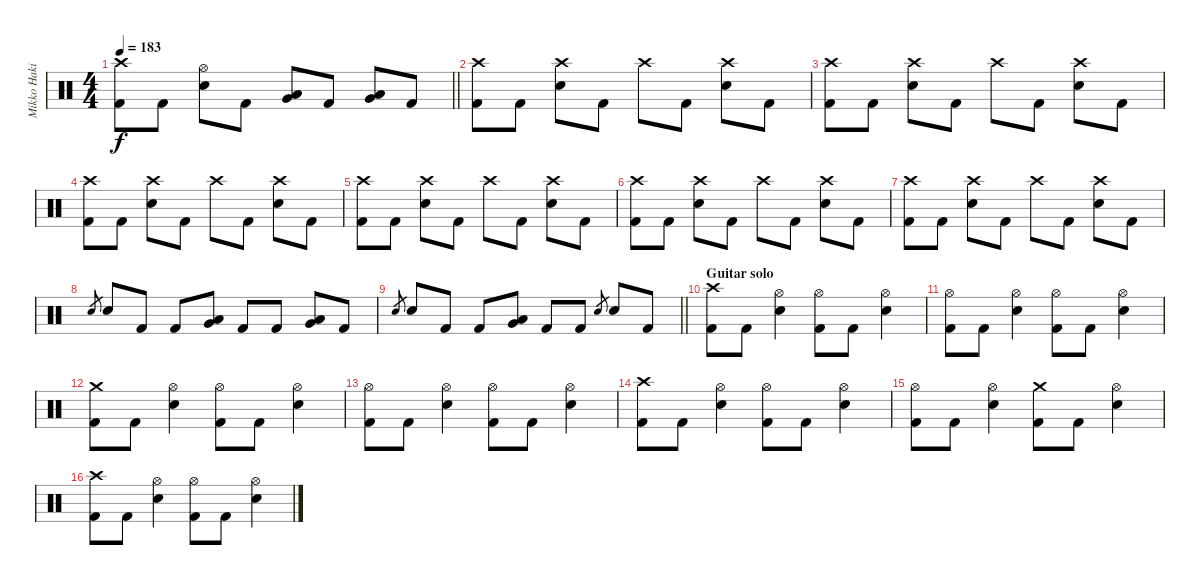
\track ("Mikko Hakila - Drums" "Mikko Haki") {instrument percussion}
\staff {score}
\articulation defaults
\ts (4 4)
\tempo 183
\clef neutral
\barLineRight lightlight
\ks c
("Crash high (hit)" "Kick (hit) 2").8{dy f} "Kick (hit) 2".8 ("Hi-Hat (open)" "Electric Snare (hit)").8 "Kick (hit) 2".8 ("Low Tom (hit)" "Very Low Tom (hit)").8 "Kick (hit) 2".8 ("Low Tom (hit)" "Very Low Tom (hit)").8 "Kick (hit) 2".8 |
("Crash high (hit)" "Kick (hit) 2").8 "Kick (hit) 2".8 ("Crash high (hit)" "Electric Snare (hit)").8 "Kick (hit) 2".8 "Crash high (hit)".8 "Kick (hit) 2".8 ("Crash high (hit)" "Electric Snare (hit)").8 "Kick (hit) 2".8 |
("Crash high (hit)" "Kick (hit) 2").8 "Kick (hit) 2".8 ("Crash high (hit)" "Electric Snare (hit)").8 "Kick (hit) 2".8 "Crash high (hit)".8 "Kick (hit) 2".8 ("Crash high (hit)" "Electric Snare (hit)").8 "Kick (hit) 2".8 |
("Crash high (hit)" "Kick (hit) 2").8 "Kick (hit) 2".8 ("Crash high (hit)" "Electric Snare (hit)").8 "Kick (hit) 2".8 "Crash high (hit)".8 "Kick (hit) 2".8 ("Crash high (hit)" "Electric Snare (hit)").8 "Kick (hit) 2".8 |
("Crash high (hit)" "Kick (hit) 2").8 "Kick (hit) 2".8 ("Crash high (hit)" "Electric Snare (hit)").8 "Kick (hit) 2".8 "Crash high (hit)".8 "Kick (hit) 2".8 ("Crash high (hit)" "Electric Snare (hit)").8 "Kick (hit) 2".8 |
("Crash high (hit)" "Kick (hit) 2").8 "Kick (hit) 2".8 ("Crash high (hit)" "Electric Snare (hit)").8 "Kick (hit) 2".8 "Crash high (hit)".8 "Kick (hit) 2".8 ("Crash high (hit)" "Electric Snare (hit)").8 "Kick (hit) 2".8 |
("Crash high (hit)" "Kick (hit) 2").8 "Kick (hit) 2".8 ("Crash high (hit)" "Electric Snare (hit)").8 "Kick (hit) 2".8 "Crash high (hit)".8 "Kick (hit) 2".8 ("Crash high (hit)" "Electric Snare (hit)").8 "Kick (hit) 2".8 |
"Electric Snare (hit)".8{gr} "Electric Snare (hit)".8 "Kick (hit) 2".8 "Kick (hit) 2".8 ("Low Tom (hit)" "Very Low Tom (hit)").8 "Kick (hit) 2".8 "Kick (hit) 2".8 ("Low Tom (hit)" "Very Low Tom (hit)").8 "Kick (hit) 2".8 |
\barLineRight lightlight "Electric Snare (hit)".8{gr} "Electric Snare (hit)".8 "Kick (hit) 2".8 "Kick (hit) 2".8
("Low Tom (hit)" "Very Low Tom (hit)").8 "Kick (hit) 2".8 "Kick (hit) 2".8 "Electric Snare (hit)".8{gr} "Electric Snare (hit)".8 "Kick (hit) 2".8 |
\section ("" "Guitar solo")
("Crash high (hit)" "Kick (hit) 2").8 "Kick (hit) 2".8 ("Hi-Hat (open)" "Electric Snare (hit)").4 ("Hi-Hat (open)" "Kick (hit) 2").8 "Kick (hit) 2".8 ("Hi-Hat (open)" "Electric Snare (hit)").4 |
("Hi-Hat (open)" "Kick (hit) 2").8 "Kick (hit) 2".8 ("Hi-Hat (open)" "Electric Snare (hit)").4 ("Hi-Hat (open)" "Kick (hit) 2").8 "Kick (hit) 2".8 ("Hi-Hat (open)" "Electric Snare (hit)").4 |
("Crash medium (hit)" "Kick (hit) 2").8 "Kick (hit) 2".8 ("Hi-Hat (open)" "Electric Snare (hit)").4 ("Hi-Hat (open)" "Kick (hit) 2").8 "Kick (hit) 2".8 ("Hi-Hat (open)" "Electric Snare (hit)").4 |
("Hi-Hat (open)" "Kick (hit) 2").8 "Kick (hit) 2".8 ("Hi-Hat (open)" "Electric Snare (hit)").4 ("Hi-Hat (open)" "Kick (hit) 2").8 "Kick (hit) 2".8 ("Hi-Hat (open)" "Electric Snare (hit)").4 |
("Crash high (hit)" "Kick (hit) 2").8 "Kick (hit) 2".8 ("Hi-Hat (open)" "Electric Snare (hit)").4 ("Hi-Hat (open)" "Kick (hit) 2").8 "Kick (hit) 2".8 ("Hi-Hat (open)" "Electric Snare (hit)").4 |
("Hi-Hat (open)" "Kick (hit) 2").8 "Kick (hit) 2".8 ("Hi-Hat (open)" "Electric Snare (hit)").4 ("Crash medium (hit)" "Kick (hit) 2").8 "Kick (hit) 2".8 ("Hi-Hat (open)" "Electric Snare (hit)").4 |
("Crash high (hit)" "Kick (hit) 2").8 "Kick (hit) 2".8 ("Hi-Hat (open)" "Electric Snare (hit)").4 ("Hi-Hat (open)" "Kick (hit) 2").8 "Kick (hit) 2".8 ("Hi-Hat (open)" "Electric Snare (hit)").4
